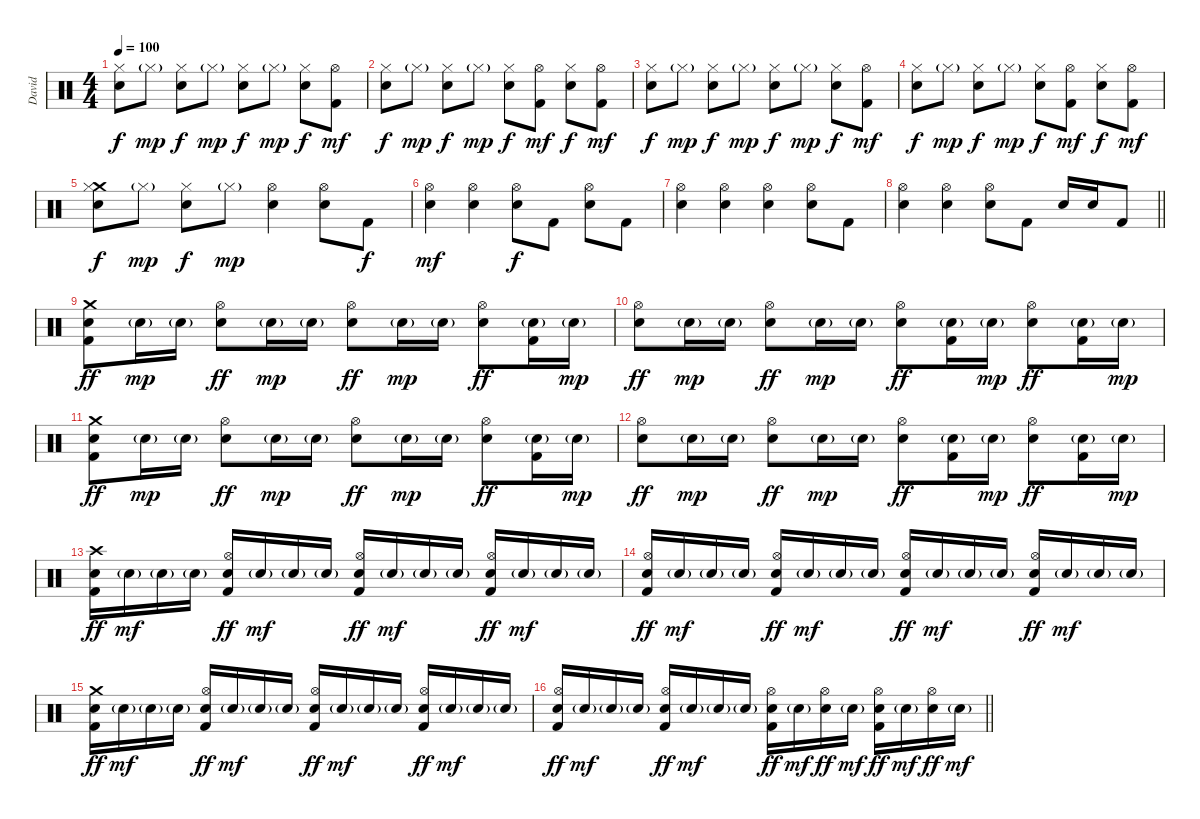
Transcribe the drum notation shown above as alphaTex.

\track ("David" "David") {instrument percussion}
\staff {score}
\articulation defaults
\ts (4 4)
\section ("" "")
\tempo 100
\clef neutral
\ks c
("Hi-Hat (closed)" "Snare (hit) 2").8{dy f} "Hi-Hat (closed)"{g}.8{dy mp} ("Hi-Hat (closed)" "Snare (hit) 2").8{dy f} "Hi-Hat (closed)"{g}.8{dy mp} ("Hi-Hat (closed)" "Snare (hit) 2").8{dy f} "Hi-Hat (closed)"{g}.8{dy mp} ("Hi-Hat (closed)" "Snare (hit) 2").8{dy f} ("Hi-Hat (open)" "Kick (hit) 2").8{dy mf} |
("Hi-Hat (closed)" "Snare (hit) 2").8{dy f} "Hi-Hat (closed)"{g}.8{dy mp} ("Hi-Hat (closed)" "Snare (hit) 2").8{dy f} "Hi-Hat (closed)"{g}.8{dy mp} ("Hi-Hat (closed)" "Snare (hit) 2").8{dy f} ("Hi-Hat (open)" "Kick (hit) 2").8{dy mf} ("Hi-Hat (closed)" "Snare (hit) 2").8{dy f} ("Hi-Hat (open)" "Kick (hit) 2").8{dy mf} |
("Hi-Hat (closed)" "Snare (hit) 2").8{dy f} "Hi-Hat (closed)"{g}.8{dy mp} ("Hi-Hat (closed)" "Snare (hit) 2").8{dy f} "Hi-Hat (closed)"{g}.8{dy mp} ("Hi-Hat (closed)" "Snare (hit) 2").8{dy f} "Hi-Hat (closed)"{g}.8{dy mp} ("Hi-Hat (closed)" "Snare (hit) 2").8{dy f} ("Hi-Hat (open)" "Kick (hit) 2").8{dy mf} |
("Hi-Hat (closed)" "Snare (hit) 2").8{dy f} "Hi-Hat (closed)"{g}.8{dy mp} ("Hi-Hat (closed)" "Snare (hit) 2").8{dy f} "Hi-Hat (closed)"{g}.8{dy mp} ("Hi-Hat (closed)" "Snare (hit) 2").8{dy f} ("Hi-Hat (open)" "Kick (hit) 2").8{dy mf} ("Hi-Hat (closed)" "Snare (hit) 2").8{dy f} ("Hi-Hat (open)" "Kick (hit) 2").8{dy mf} |
("Crash medium (hit)" "Hi-Hat (closed)" "Snare (hit) 2").8{dy f} "Hi-Hat (closed)"{g}.8{dy mp} ("Hi-Hat (closed)" "Snare (hit) 2").8{dy f} "Hi-Hat (closed)"{g}.8{dy mp} ("Hi-Hat (open)" "Snare (hit) 2").4 ("Hi-Hat (open)" "Snare (hit) 2").8 "Kick (hit) 2".8{dy f} |
("Hi-Hat (open)" "Snare (hit) 2").4{dy mf} ("Hi-Hat (open)" "Snare (hit) 2").4 ("Hi-Hat (open)" "Snare (hit) 2").8{dy f} "Kick (hit) 2".8 ("Hi-Hat (open)" "Snare (hit) 2").8 "Kick (hit) 2".8 |
("Hi-Hat (open)" "Snare (hit) 2").4 ("Hi-Hat (open)" "Snare (hit) 2").4 ("Hi-Hat (open)" "Snare (hit) 2").4 ("Hi-Hat (open)" "Snare (hit) 2").8 "Kick (hit) 2".8 |
\barLineRight lightlight
("Hi-Hat (open)" "Snare (hit) 2").4 ("Hi-Hat (open)" "Snare (hit) 2").4 ("Hi-Hat (open)" "Snare (hit) 2").8 "Kick (hit) 2".8 "Snare (hit) 2".16 "Snare (hit) 2".16 "Kick (hit) 2".8 |
\section ("" "")
("Crash medium (hit)" "Snare (hit) 2" "Kick (hit) 2").8{dy ff} "Snare (hit) 2"{g}.16{dy mp} "Snare (hit) 2"{g}.16 ("Hi-Hat (open)" "Snare (hit) 2").8{dy ff} "Snare (hit) 2"{g}.16{dy mp} "Snare (hit) 2"{g}.16 ("Hi-Hat (open)" "Snare (hit) 2").8{dy ff} "Snare (hit) 2"{g}.16{dy mp} "Snare (hit) 2"{g}.16 ("Hi-Hat (open)" "Snare (hit) 2").8{dy ff} ("Snare (hit) 2"{g} "Kick (hit) 2").16 "Snare (hit) 2"{g}.16{dy mp} |
("Hi-Hat (open)" "Snare (hit) 2").8{dy ff} "Snare (hit) 2"{g}.16{dy mp} "Snare (hit) 2"{g}.16 ("Hi-Hat (open)" "Snare (hit) 2").8{dy ff} "Snare (hit) 2"{g}.16{dy mp} "Snare (hit) 2"{g}.16 ("Hi-Hat (open)" "Snare (hit) 2").8{dy ff} ("Snare (hit) 2"{g} "Kick (hit) 2").16 "Snare (hit) 2"{g}.16{dy mp} ("Hi-Hat (open)" "Snare (hit) 2").8{dy ff} ("Snare (hit) 2"{g} "Kick (hit) 2").16 "Snare (hit) 2"{g}.16{dy mp} |
("Crash medium (hit)" "Snare (hit) 2" "Kick (hit) 2").8{dy ff} "Snare (hit) 2"{g}.16{dy mp} "Snare (hit) 2"{g}.16 ("Hi-Hat (open)" "Snare (hit) 2").8{dy ff} "Snare (hit) 2"{g}.16{dy mp} "Snare (hit) 2"{g}.16 ("Hi-Hat (open)" "Snare (hit) 2").8{dy ff} "Snare (hit) 2"{g}.16{dy mp} "Snare (hit) 2"{g}.16 ("Hi-Hat (open)" "Snare (hit) 2").8{dy ff} ("Snare (hit) 2"{g} "Kick (hit) 2").16 "Snare (hit) 2"{g}.16{dy mp} |
("Hi-Hat (open)" "Snare (hit) 2").8{dy ff} "Snare (hit) 2"{g}.16{dy mp} "Snare (hit) 2"{g}.16 ("Hi-Hat (open)" "Snare (hit) 2").8{dy ff} "Snare (hit) 2"{g}.16{dy mp} "Snare (hit) 2"{g}.16 ("Hi-Hat (open)" "Snare (hit) 2").8{dy ff} ("Snare (hit) 2"{g} "Kick (hit) 2").16 "Snare (hit) 2"{g}.16{dy mp} ("Hi-Hat (open)" "Snare (hit) 2").8{dy ff} ("Snare (hit) 2"{g} "Kick (hit) 2").16 "Snare (hit) 2"{g}.16{dy mp} |
("Crash high (hit)" "Snare (hit) 2" "Kick (hit) 2").16{dy ff volume 16} "Snare (hit) 2"{g}.16{dy mf} "Snare (hit) 2"{g}.16 "Snare (hit) 2"{g}.16 ("Hi-Hat (open)" "Snare (hit) 2" "Kick (hit) 2").16{dy ff} "Snare (hit) 2"{g}.16{dy mf} "Snare (hit) 2"{g}.16 "Snare (hit) 2"{g}.16 ("Hi-Hat (open)" "Snare (hit) 2" "Kick (hit) 2").16{dy ff} "Snare (hit) 2"{g}.16{dy mf} "Snare (hit) 2"{g}.16 "Snare (hit) 2"{g}.16 ("Hi-Hat (open)" "Snare (hit) 2" "Kick (hit) 2").16{dy ff} "Snare (hit) 2"{g}.16{dy mf} "Snare (hit) 2"{g}.16 "Snare (hit) 2"{g}.16 |
("Hi-Hat (open)" "Snare (hit) 2" "Kick (hit) 2").16{dy ff} "Snare (hit) 2"{g}.16{dy mf} "Snare (hit) 2"{g}.16 "Snare (hit) 2"{g}.16 ("Hi-Hat (open)" "Snare (hit) 2" "Kick (hit) 2").16{dy ff} "Snare (hit) 2"{g}.16{dy mf} "Snare (hit) 2"{g}.16 "Snare (hit) 2"{g}.16 ("Hi-Hat (open)" "Snare (hit) 2" "Kick (hit) 2").16{dy ff} "Snare (hit) 2"{g}.16{dy mf} "Snare (hit) 2"{g}.16 "Snare (hit) 2"{g}.16 ("Hi-Hat (open)" "Snare (hit) 2" "Kick (hit) 2").16{dy ff} "Snare (hit) 2"{g}.16{dy mf} "Snare (hit) 2"{g}.16 "Snare (hit) 2"{g}.16 |
("Crash medium (hit)" "Snare (hit) 2" "Kick (hit) 2").16{dy ff} "Snare (hit) 2"{g}.16{dy mf} "Snare (hit) 2"{g}.16 "Snare (hit) 2"{g}.16 ("Hi-Hat (open)" "Snare (hit) 2" "Kick (hit) 2").16{dy ff} "Snare (hit) 2"{g}.16{dy mf} "Snare (hit) 2"{g}.16 "Snare (hit) 2"{g}.16 ("Hi-Hat (open)" "Snare (hit) 2" "Kick (hit) 2").16{dy ff} "Snare (hit) 2"{g}.16{dy mf} "Snare (hit) 2"{g}.16 "Snare (hit) 2"{g}.16 ("Hi-Hat (open)" "Snare (hit) 2" "Kick (hit) 2").16{dy ff} "Snare (hit) 2"{g}.16{dy mf} "Snare (hit) 2"{g}.16 "Snare (hit) 2"{g}.16 |
\barLineRight lightlight
("Hi-Hat (open)" "Snare (hit) 2" "Kick (hit) 2").16{dy ff} "Snare (hit) 2"{g}.16{dy mf} "Snare (hit) 2"{g}.16 "Snare (hit) 2"{g}.16 ("Hi-Hat (open)" "Snare (hit) 2" "Kick (hit) 2").16{dy ff} "Snare (hit) 2"{g}.16{dy mf} "Snare (hit) 2"{g}.16 "Snare (hit) 2"{g}.16 ("Hi-Hat (open)" "Snare (hit) 2" "Kick (hit) 2").16{dy ff} "Snare (hit) 2"{g}.16{dy mf} ("Hi-Hat (open)" "Snare (hit) 2").16{dy ff} "Snare (hit) 2"{g}.16{dy mf} ("Hi-Hat (open)" "Snare (hit) 2" "Kick (hit) 2").16{dy ff} "Snare (hit) 2"{g}.16{dy mf} ("Hi-Hat (open)" "Snare (hit) 2").16{dy ff} "Snare (hit) 2"{g}.16{dy mf}
